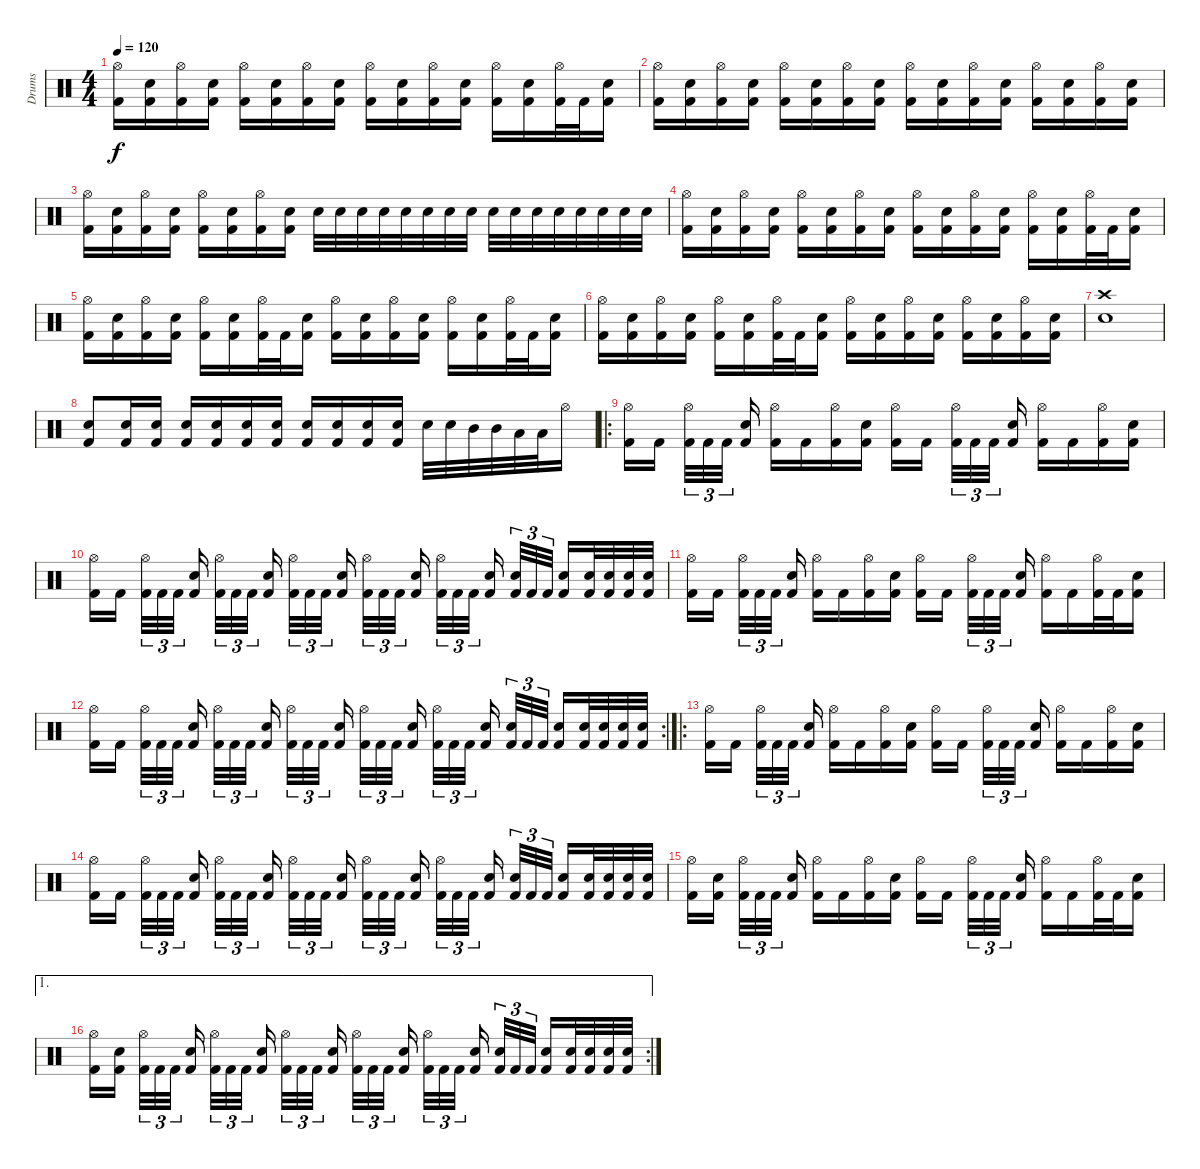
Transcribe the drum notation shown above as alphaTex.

\track ("Drums" "Drums") {instrument percussion}
\staff {score}
\articulation defaults
\ts (4 4)
\tempo 120
\clef neutral
\ks c
("Hi-Hat (open)" "Kick (hit) 2").16{dy f} ("Electric Snare (hit)" "Kick (hit) 2").16 ("Hi-Hat (open)" "Kick (hit) 2").16 ("Electric Snare (hit)" "Kick (hit) 2").16 ("Hi-Hat (open)" "Kick (hit) 2").16 ("Electric Snare (hit)" "Kick (hit) 2").16 ("Hi-Hat (open)" "Kick (hit) 2").16 ("Electric Snare (hit)" "Kick (hit) 2").16 ("Hi-Hat (open)" "Kick (hit) 2").16 ("Electric Snare (hit)" "Kick (hit) 2").16 ("Hi-Hat (open)" "Kick (hit) 2").16 ("Electric Snare (hit)" "Kick (hit) 2").16 ("Hi-Hat (open)" "Kick (hit) 2").16 ("Electric Snare (hit)" "Kick (hit) 2").16 ("Hi-Hat (open)" "Kick (hit) 2").32 "Kick (hit) 2".32 ("Electric Snare (hit)" "Kick (hit) 2").16 |
("Hi-Hat (open)" "Kick (hit) 2").16 ("Electric Snare (hit)" "Kick (hit) 2").16 ("Hi-Hat (open)" "Kick (hit) 2").16 ("Electric Snare (hit)" "Kick (hit) 2").16 ("Hi-Hat (open)" "Kick (hit) 2").16 ("Electric Snare (hit)" "Kick (hit) 2").16 ("Hi-Hat (open)" "Kick (hit) 2").16 ("Electric Snare (hit)" "Kick (hit) 2").16 ("Hi-Hat (open)" "Kick (hit) 2").16 ("Electric Snare (hit)" "Kick (hit) 2").16 ("Hi-Hat (open)" "Kick (hit) 2").16 ("Electric Snare (hit)" "Kick (hit) 2").16 ("Hi-Hat (open)" "Kick (hit) 2").16 ("Electric Snare (hit)" "Kick (hit) 2").16 ("Hi-Hat (open)" "Kick (hit) 2").16 ("Electric Snare (hit)" "Kick (hit) 2").16 |
("Hi-Hat (open)" "Kick (hit) 2").16 ("Electric Snare (hit)" "Kick (hit) 2").16 ("Hi-Hat (open)" "Kick (hit) 2").16 ("Electric Snare (hit)" "Kick (hit) 2").16 ("Hi-Hat (open)" "Kick (hit) 2").16 ("Electric Snare (hit)" "Kick (hit) 2").16 ("Hi-Hat (open)" "Kick (hit) 2").16 ("Electric Snare (hit)" "Kick (hit) 2").16 "Electric Snare (hit)".32 "Electric Snare (hit)".32 "Electric Snare (hit)".32 "Electric Snare (hit)".32 "Electric Snare (hit)".32 "Electric Snare (hit)".32 "Electric Snare (hit)".32 "Electric Snare (hit)".32 "Electric Snare (hit)".32 "Electric Snare (hit)".32 "Electric Snare (hit)".32 "Electric Snare (hit)".32 "Electric Snare (hit)".32 "Electric Snare (hit)".32 "Electric Snare (hit)".32 "Electric Snare (hit)".32 |
("Hi-Hat (open)" "Kick (hit) 2").16 ("Electric Snare (hit)" "Kick (hit) 2").16 ("Hi-Hat (open)" "Kick (hit) 2").16 ("Electric Snare (hit)" "Kick (hit) 2").16 ("Hi-Hat (open)" "Kick (hit) 2").16 ("Electric Snare (hit)" "Kick (hit) 2").16 ("Hi-Hat (open)" "Kick (hit) 2").16 ("Electric Snare (hit)" "Kick (hit) 2").16 ("Hi-Hat (open)" "Kick (hit) 2").16 ("Electric Snare (hit)" "Kick (hit) 2").16 ("Hi-Hat (open)" "Kick (hit) 2").16 ("Electric Snare (hit)" "Kick (hit) 2").16 ("Hi-Hat (open)" "Kick (hit) 2").16 ("Electric Snare (hit)" "Kick (hit) 2").16 ("Hi-Hat (open)" "Kick (hit) 2").32 "Kick (hit) 2".32 ("Electric Snare (hit)" "Kick (hit) 2").16 |
("Hi-Hat (open)" "Kick (hit) 2").16 ("Electric Snare (hit)" "Kick (hit) 2").16 ("Hi-Hat (open)" "Kick (hit) 2").16 ("Electric Snare (hit)" "Kick (hit) 2").16 ("Hi-Hat (open)" "Kick (hit) 2").16 ("Electric Snare (hit)" "Kick (hit) 2").16 ("Hi-Hat (open)" "Kick (hit) 2").32 "Kick (hit) 2".32 ("Electric Snare (hit)" "Kick (hit) 2").16 ("Hi-Hat (open)" "Kick (hit) 2").16 ("Electric Snare (hit)" "Kick (hit) 2").16 ("Hi-Hat (open)" "Kick (hit) 2").16 ("Electric Snare (hit)" "Kick (hit) 2").16 ("Hi-Hat (open)" "Kick (hit) 2").16 ("Electric Snare (hit)" "Kick (hit) 2").16 ("Hi-Hat (open)" "Kick (hit) 2").32 "Kick (hit) 2".32 ("Electric Snare (hit)" "Kick (hit) 2").16 |
("Hi-Hat (open)" "Kick (hit) 2").16 ("Electric Snare (hit)" "Kick (hit) 2").16 ("Hi-Hat (open)" "Kick (hit) 2").16 ("Electric Snare (hit)" "Kick (hit) 2").16 ("Hi-Hat (open)" "Kick (hit) 2").16 ("Electric Snare (hit)" "Kick (hit) 2").16 ("Hi-Hat (open)" "Kick (hit) 2").32 "Kick (hit) 2".32 ("Electric Snare (hit)" "Kick (hit) 2").16 ("Hi-Hat (open)" "Kick (hit) 2").16 ("Electric Snare (hit)" "Kick (hit) 2").16 ("Hi-Hat (open)" "Kick (hit) 2").16 ("Electric Snare (hit)" "Kick (hit) 2").16 ("Hi-Hat (open)" "Kick (hit) 2").16 ("Electric Snare (hit)" "Kick (hit) 2").16 ("Hi-Hat (open)" "Kick (hit) 2").16 ("Electric Snare (hit)" "Kick (hit) 2").16 |
("Crash high (hit)" "Electric Snare (hit)").1 |
("Electric Snare (hit)" "Kick (hit) 2").8 ("Electric Snare (hit)" "Kick (hit) 2").16 ("Electric Snare (hit)" "Kick (hit) 2").16 ("Electric Snare (hit)" "Kick (hit) 2").16 ("Electric Snare (hit)" "Kick (hit) 2").16 ("Electric Snare (hit)" "Kick (hit) 2").16 ("Electric Snare (hit)" "Kick (hit) 2").16 ("Electric Snare (hit)" "Kick (hit) 2").16 ("Electric Snare (hit)" "Kick (hit) 2").16 ("Electric Snare (hit)" "Kick (hit) 2").16 ("Electric Snare (hit)" "Kick (hit) 2").16 "Electric Snare (hit)".32 "Electric Snare (hit)".32 "Mid Tom (hit)".32 "Mid Tom (hit)".32 "Low Tom (hit)".32 "Low Tom (hit)".32 "Hi-Hat (open)".16 |
\ro
("Hi-Hat (open)" "Kick (hit) 2").16 "Kick (hit) 2".16{beam splitsecondary} ("Hi-Hat (open)" "Kick (hit) 2").32{tu (3 2)} "Kick (hit) 2".32{tu (3 2)} "Kick (hit) 2".32{tu (3 2) beam splitsecondary} ("Snare (hit) 2" "Kick (hit) 2").16 ("Hi-Hat (open)" "Kick (hit) 2").16 "Kick (hit) 2".16 ("Hi-Hat (open)" "Kick (hit) 2").16 ("Snare (hit) 2" "Kick (hit) 2").16 ("Hi-Hat (open)" "Kick (hit) 2").16 "Kick (hit) 2".16{beam splitsecondary} ("Hi-Hat (open)" "Kick (hit) 2").32{tu (3 2)} "Kick (hit) 2".32{tu (3 2)} "Kick (hit) 2".32{tu (3 2) beam splitsecondary} ("Snare (hit) 2" "Kick (hit) 2").16 ("Hi-Hat (open)" "Kick (hit) 2").16 "Kick (hit) 2".16 ("Hi-Hat (open)" "Kick (hit) 2").16 ("Snare (hit) 2" "Kick (hit) 2").16 |
("Hi-Hat (open)" "Kick (hit) 2").16 "Kick (hit) 2".16{beam splitsecondary} ("Hi-Hat (open)" "Kick (hit) 2").32{tu (3 2)} "Kick (hit) 2".32{tu (3 2)} "Kick (hit) 2".32{tu (3 2) beam splitsecondary} ("Snare (hit) 2" "Kick (hit) 2").16 ("Hi-Hat (open)" "Kick (hit) 2").32{tu (3 2)} "Kick (hit) 2".32{tu (3 2)} "Kick (hit) 2".32{tu (3 2) beam splitsecondary} ("Snare (hit) 2" "Kick (hit) 2").16{beam splitsecondary} ("Hi-Hat (open)" "Kick (hit) 2").32{tu (3 2)} "Kick (hit) 2".32{tu (3 2)} "Kick (hit) 2".32{tu (3 2) beam splitsecondary} ("Snare (hit) 2" "Kick (hit) 2").16 ("Hi-Hat (open)" "Kick (hit) 2").32{tu (3 2)} "Kick (hit) 2".32{tu (3 2)} "Kick (hit) 2".32{tu (3 2) beam splitsecondary} ("Snare (hit) 2" "Kick (hit) 2").16{beam splitsecondary} ("Hi-Hat (open)" "Kick (hit) 2").32{tu (3 2)} "Kick (hit) 2".32{tu (3 2)} "Kick (hit) 2".32{tu (3 2) beam splitsecondary} ("Snare (hit) 2" "Kick (hit) 2").16 ("Snare (hit) 2" "Kick (hit) 2").32{tu (3 2)} "Kick (hit) 2".32{tu (3 2)} "Kick (hit) 2".32{tu (3 2) beam splitsecondary} ("Snare (hit) 2" "Kick (hit) 2").16 ("Snare (hit) 2" "Kick (hit) 2").32 ("Snare (hit) 2" "Kick (hit) 2").32 ("Snare (hit) 2" "Kick (hit) 2").32 ("Snare (hit) 2" "Kick (hit) 2").32 |
("Hi-Hat (open)" "Kick (hit) 2").16 "Kick (hit) 2".16{beam splitsecondary} ("Hi-Hat (open)" "Kick (hit) 2").32{tu (3 2)} "Kick (hit) 2".32{tu (3 2)} "Kick (hit) 2".32{tu (3 2) beam splitsecondary} ("Snare (hit) 2" "Kick (hit) 2").16 ("Hi-Hat (open)" "Kick (hit) 2").16 "Kick (hit) 2".16 ("Hi-Hat (open)" "Kick (hit) 2").16 ("Snare (hit) 2" "Kick (hit) 2").16 ("Hi-Hat (open)" "Kick (hit) 2").16 "Kick (hit) 2".16{beam splitsecondary} ("Hi-Hat (open)" "Kick (hit) 2").32{tu (3 2)} "Kick (hit) 2".32{tu (3 2)} "Kick (hit) 2".32{tu (3 2) beam splitsecondary} ("Snare (hit) 2" "Kick (hit) 2").16 ("Hi-Hat (open)" "Kick (hit) 2").16 "Kick (hit) 2".16 ("Hi-Hat (open)" "Kick (hit) 2").32 "Kick (hit) 2".32 ("Snare (hit) 2" "Kick (hit) 2").16 |
\rc 2
("Hi-Hat (open)" "Kick (hit) 2").16 "Kick (hit) 2".16{beam splitsecondary} ("Hi-Hat (open)" "Kick (hit) 2").32{tu (3 2)} "Kick (hit) 2".32{tu (3 2)} "Kick (hit) 2".32{tu (3 2) beam splitsecondary} ("Snare (hit) 2" "Kick (hit) 2").16 ("Hi-Hat (open)" "Kick (hit) 2").32{tu (3 2)} "Kick (hit) 2".32{tu (3 2)} "Kick (hit) 2".32{tu (3 2) beam splitsecondary} ("Electric Snare (hit)" "Kick (hit) 2").16{beam splitsecondary} ("Hi-Hat (open)" "Kick (hit) 2").32{tu (3 2)} "Kick (hit) 2".32{tu (3 2)} "Kick (hit) 2".32{tu (3 2) beam splitsecondary} ("Electric Snare (hit)" "Kick (hit) 2").16 ("Hi-Hat (open)" "Kick (hit) 2").32{tu (3 2)} "Kick (hit) 2".32{tu (3 2)} "Kick (hit) 2".32{tu (3 2) beam splitsecondary} ("Electric Snare (hit)" "Kick (hit) 2").16{beam splitsecondary} ("Hi-Hat (open)" "Kick (hit) 2").32{tu (3 2)} "Kick (hit) 2".32{tu (3 2)} "Kick (hit) 2".32{tu (3 2) beam splitsecondary} ("Electric Snare (hit)" "Kick (hit) 2").16 ("Electric Snare (hit)" "Kick (hit) 2").32{tu (3 2)} "Kick (hit) 2".32{tu (3 2)} "Kick (hit) 2".32{tu (3 2) beam splitsecondary} ("Electric Snare (hit)" "Kick (hit) 2").16 ("Electric Snare (hit)" "Kick (hit) 2").32 ("Electric Snare (hit)" "Kick (hit) 2").32 ("Electric Snare (hit)" "Kick (hit) 2").32 ("Electric Snare (hit)" "Kick (hit) 2").32 |
\ro
("Hi-Hat (open)" "Kick (hit) 2").16 "Kick (hit) 2".16{beam splitsecondary} ("Hi-Hat (open)" "Kick (hit) 2").32{tu (3 2)} "Kick (hit) 2".32{tu (3 2)} "Kick (hit) 2".32{tu (3 2) beam splitsecondary} ("Snare (hit) 2" "Kick (hit) 2").16 ("Hi-Hat (open)" "Kick (hit) 2").16 "Kick (hit) 2".16 ("Hi-Hat (open)" "Kick (hit) 2").16 ("Snare (hit) 2" "Kick (hit) 2").16 ("Hi-Hat (open)" "Kick (hit) 2").16 "Kick (hit) 2".16{beam splitsecondary} ("Hi-Hat (open)" "Kick (hit) 2").32{tu (3 2)} "Kick (hit) 2".32{tu (3 2)} "Kick (hit) 2".32{tu (3 2) beam splitsecondary} ("Snare (hit) 2" "Kick (hit) 2").16 ("Hi-Hat (open)" "Kick (hit) 2").16 "Kick (hit) 2".16 ("Hi-Hat (open)" "Kick (hit) 2").16 ("Snare (hit) 2" "Kick (hit) 2").16 |
("Hi-Hat (open)" "Kick (hit) 2").16 "Kick (hit) 2".16{beam splitsecondary} ("Hi-Hat (open)" "Kick (hit) 2").32{tu (3 2)} "Kick (hit) 2".32{tu (3 2)} "Kick (hit) 2".32{tu (3 2) beam splitsecondary} ("Snare (hit) 2" "Kick (hit) 2").16 ("Hi-Hat (open)" "Kick (hit) 2").32{tu (3 2)} "Kick (hit) 2".32{tu (3 2)} "Kick (hit) 2".32{tu (3 2) beam splitsecondary} ("Snare (hit) 2" "Kick (hit) 2").16{beam splitsecondary} ("Hi-Hat (open)" "Kick (hit) 2").32{tu (3 2)} "Kick (hit) 2".32{tu (3 2)} "Kick (hit) 2".32{tu (3 2) beam splitsecondary} ("Snare (hit) 2" "Kick (hit) 2").16 ("Hi-Hat (open)" "Kick (hit) 2").32{tu (3 2)} "Kick (hit) 2".32{tu (3 2)} "Kick (hit) 2".32{tu (3 2) beam splitsecondary} ("Snare (hit) 2" "Kick (hit) 2").16{beam splitsecondary} ("Hi-Hat (open)" "Kick (hit) 2").32{tu (3 2)} "Kick (hit) 2".32{tu (3 2)} "Kick (hit) 2".32{tu (3 2) beam splitsecondary} ("Snare (hit) 2" "Kick (hit) 2").16 ("Snare (hit) 2" "Kick (hit) 2").32{tu (3 2)} "Kick (hit) 2".32{tu (3 2)} "Kick (hit) 2".32{tu (3 2) beam splitsecondary} ("Snare (hit) 2" "Kick (hit) 2").16 ("Snare (hit) 2" "Kick (hit) 2").32 ("Snare (hit) 2" "Kick (hit) 2").32 ("Snare (hit) 2" "Kick (hit) 2").32 ("Snare (hit) 2" "Kick (hit) 2").32 |
("Hi-Hat (open)" "Kick (hit) 2").16 ("Snare (hit) 2" "Kick (hit) 2").16{beam splitsecondary} ("Hi-Hat (open)" "Kick (hit) 2").32{tu (3 2)} "Kick (hit) 2".32{tu (3 2)} "Kick (hit) 2".32{tu (3 2) beam splitsecondary} ("Snare (hit) 2" "Kick (hit) 2").16 ("Hi-Hat (open)" "Kick (hit) 2").16 "Kick (hit) 2".16 ("Hi-Hat (open)" "Kick (hit) 2").16 ("Snare (hit) 2" "Kick (hit) 2").16 ("Hi-Hat (open)" "Kick (hit) 2").16 "Kick (hit) 2".16{beam splitsecondary} ("Hi-Hat (open)" "Kick (hit) 2").32{tu (3 2)} "Kick (hit) 2".32{tu (3 2)} "Kick (hit) 2".32{tu (3 2) beam splitsecondary} ("Snare (hit) 2" "Kick (hit) 2").16 ("Hi-Hat (open)" "Kick (hit) 2").16 "Kick (hit) 2".16 ("Hi-Hat (open)" "Kick (hit) 2").32 "Kick (hit) 2".32 ("Snare (hit) 2" "Kick (hit) 2").16 |
\ae 1
\rc 2
("Hi-Hat (open)" "Kick (hit) 2").16 ("Snare (hit) 2" "Kick (hit) 2").16{beam splitsecondary} ("Hi-Hat (open)" "Kick (hit) 2").32{tu (3 2)} "Kick (hit) 2".32{tu (3 2)} "Kick (hit) 2".32{tu (3 2) beam splitsecondary} ("Snare (hit) 2" "Kick (hit) 2").16 ("Hi-Hat (open)" "Kick (hit) 2").32{tu (3 2)} "Kick (hit) 2".32{tu (3 2)} "Kick (hit) 2".32{tu (3 2) beam splitsecondary} ("Snare (hit) 2" "Kick (hit) 2").16{beam splitsecondary} ("Hi-Hat (open)" "Kick (hit) 2").32{tu (3 2)} "Kick (hit) 2".32{tu (3 2)} "Kick (hit) 2".32{tu (3 2) beam splitsecondary} ("Snare (hit) 2" "Kick (hit) 2").16 ("Hi-Hat (open)" "Kick (hit) 2").32{tu (3 2)} "Kick (hit) 2".32{tu (3 2)} "Kick (hit) 2".32{tu (3 2) beam splitsecondary} ("Snare (hit) 2" "Kick (hit) 2").16{beam splitsecondary} ("Hi-Hat (open)" "Kick (hit) 2").32{tu (3 2)} "Kick (hit) 2".32{tu (3 2)} "Kick (hit) 2".32{tu (3 2) beam splitsecondary} ("Snare (hit) 2" "Kick (hit) 2").16 ("Snare (hit) 2" "Kick (hit) 2").32{tu (3 2)} "Kick (hit) 2".32{tu (3 2)} "Kick (hit) 2".32{tu (3 2) beam splitsecondary} ("Snare (hit) 2" "Kick (hit) 2").16 ("Snare (hit) 2" "Kick (hit) 2").32 ("Snare (hit) 2" "Kick (hit) 2").32 ("Snare (hit) 2" "Kick (hit) 2").32 ("Snare (hit) 2" "Kick (hit) 2").32
